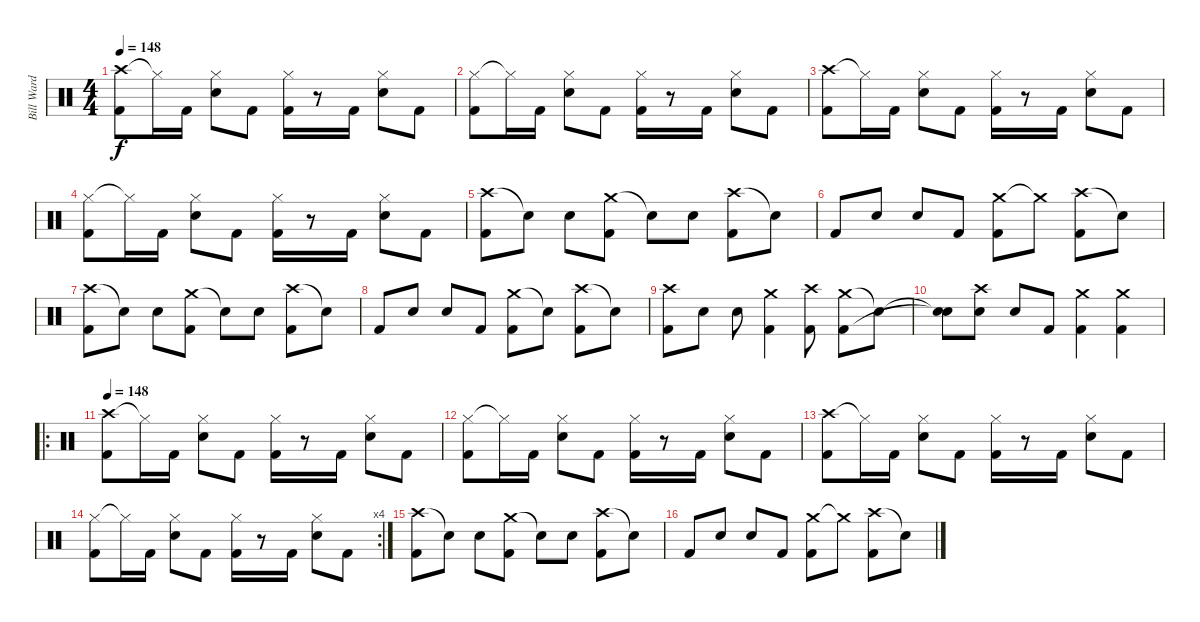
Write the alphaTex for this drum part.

\track ("Bill Ward" "Bill Ward") {instrument percussion}
\staff {score}
\articulation defaults
\ts (4 4)
\tempo 148
\clef neutral
\ks aminor
("Crash high (hit)" "Kick (hit) 2").8{dy f} "Hi-Hat (closed)"{t}.16 "Kick (hit) 2".16 ("Hi-Hat (closed)" "Snare (hit) 2").8 "Kick (hit) 2".8 ("Hi-Hat (closed)" "Kick (hit) 2").16 r.8 "Kick (hit) 2".16 ("Hi-Hat (closed)" "Snare (hit) 2").8 "Kick (hit) 2".8 |
("Hi-Hat (closed)" "Kick (hit) 2").8 "Hi-Hat (closed)"{t}.16 "Kick (hit) 2".16 ("Hi-Hat (closed)" "Snare (hit) 2").8 "Kick (hit) 2".8 ("Hi-Hat (closed)" "Kick (hit) 2").16 r.8 "Kick (hit) 2".16 ("Hi-Hat (closed)" "Snare (hit) 2").8 "Kick (hit) 2".8 |
("Crash high (hit)" "Kick (hit) 2").8 "Hi-Hat (closed)"{t}.16 "Kick (hit) 2".16 ("Hi-Hat (closed)" "Snare (hit) 2").8 "Kick (hit) 2".8 ("Hi-Hat (closed)" "Kick (hit) 2").16 r.8 "Kick (hit) 2".16 ("Hi-Hat (closed)" "Snare (hit) 2").8 "Kick (hit) 2".8 |
("Hi-Hat (closed)" "Kick (hit) 2").8 "Hi-Hat (closed)"{t}.16 "Kick (hit) 2".16 ("Hi-Hat (closed)" "Snare (hit) 2").8 "Kick (hit) 2".8 ("Hi-Hat (closed)" "Kick (hit) 2").16 r.8 "Kick (hit) 2".16 ("Hi-Hat (closed)" "Snare (hit) 2").8 "Kick (hit) 2".8 |
("Crash high (hit)" "Kick (hit) 2").8 "Snare (hit)"{t}.8 "Snare (hit) 2".8 ("Crash medium (hit)" "Kick (hit) 2").8 "Snare (hit)"{t}.8 "Snare (hit) 2".8 ("Crash high (hit)" "Kick (hit) 2").8 "Snare (hit)"{t}.8 |
"Kick (hit) 2".8 "Snare (hit) 2".8 "Snare (hit) 2".8 "Kick (hit) 2".8 ("Crash medium (hit)" "Kick (hit) 2").8 "Crash medium (hit)"{t}.8 ("Crash high (hit)" "Kick (hit) 2").8 "Snare (hit)"{t}.8 |
("Crash high (hit)" "Kick (hit) 2").8 "Snare (hit)"{t}.8 "Snare (hit) 2".8 ("Crash medium (hit)" "Kick (hit) 2").8 "Snare (hit)"{t}.8 "Snare (hit) 2".8 ("Crash high (hit)" "Kick (hit) 2").8 "Snare (hit)"{t}.8 |
"Kick (hit) 2".8 "Snare (hit) 2".8 "Snare (hit) 2".8 "Kick (hit) 2".8 ("Crash medium (hit)" "Kick (hit) 2").8 "Snare (hit)"{t}.8 ("Crash high (hit)" "Kick (hit) 2").8 "Snare (hit)"{t}.8 |
("Crash high (hit)" "Kick (hit) 2").8 "Snare (hit) 2".8 "Snare (hit) 2".8 ("Crash medium (hit)" "Kick (hit) 2").4 ("Crash high (hit)" "Kick (hit) 2").8 ("Crash medium (hit)" "Kick (hit) 2").8 "Snare (hit)"{t}.8 |
("Snare (hit)"{t} "Snare (hit)"{t}).8 ("Crash high (hit)" "Snare (hit) 2").8 "Snare (hit) 2".8 "Kick (hit) 2".8 ("Crash medium (hit)" "Kick (hit) 2").4 ("Crash medium (hit)" "Kick (hit) 2").4 |
\ro
\tempo 148
("Crash high (hit)" "Kick (hit) 2").8 "Hi-Hat (closed)"{t}.16 "Kick (hit) 2".16 ("Hi-Hat (closed)" "Snare (hit) 2").8 "Kick (hit) 2".8 ("Hi-Hat (closed)" "Kick (hit) 2").16 r.8 "Kick (hit) 2".16 ("Hi-Hat (closed)" "Snare (hit) 2").8 "Kick (hit) 2".8 |
("Hi-Hat (closed)" "Kick (hit) 2").8 "Hi-Hat (closed)"{t}.16 "Kick (hit) 2".16 ("Hi-Hat (closed)" "Snare (hit) 2").8 "Kick (hit) 2".8 ("Hi-Hat (closed)" "Kick (hit) 2").16 r.8 "Kick (hit) 2".16 ("Hi-Hat (closed)" "Snare (hit) 2").8 "Kick (hit) 2".8 |
("Crash high (hit)" "Kick (hit) 2").8 "Hi-Hat (closed)"{t}.16 "Kick (hit) 2".16 ("Hi-Hat (closed)" "Snare (hit) 2").8 "Kick (hit) 2".8 ("Hi-Hat (closed)" "Kick (hit) 2").16 r.8 "Kick (hit) 2".16 ("Hi-Hat (closed)" "Snare (hit) 2").8 "Kick (hit) 2".8 |
\rc 4
("Hi-Hat (closed)" "Kick (hit) 2").8 "Hi-Hat (closed)"{t}.16 "Kick (hit) 2".16 ("Hi-Hat (closed)" "Snare (hit) 2").8 "Kick (hit) 2".8 ("Hi-Hat (closed)" "Kick (hit) 2").16 r.8 "Kick (hit) 2".16 ("Hi-Hat (closed)" "Snare (hit) 2").8 "Kick (hit) 2".8 |
("Crash high (hit)" "Kick (hit) 2").8 "Snare (hit)"{t}.8 "Snare (hit) 2".8 ("Crash medium (hit)" "Kick (hit) 2").8 "Snare (hit)"{t}.8 "Snare (hit) 2".8 ("Crash high (hit)" "Kick (hit) 2").8 "Snare (hit)"{t}.8 |
"Kick (hit) 2".8 "Snare (hit) 2".8 "Snare (hit) 2".8 "Kick (hit) 2".8 ("Crash medium (hit)" "Kick (hit) 2").8 "Crash medium (hit)"{t}.8 ("Crash high (hit)" "Kick (hit) 2").8 "Snare (hit)"{t}.8
